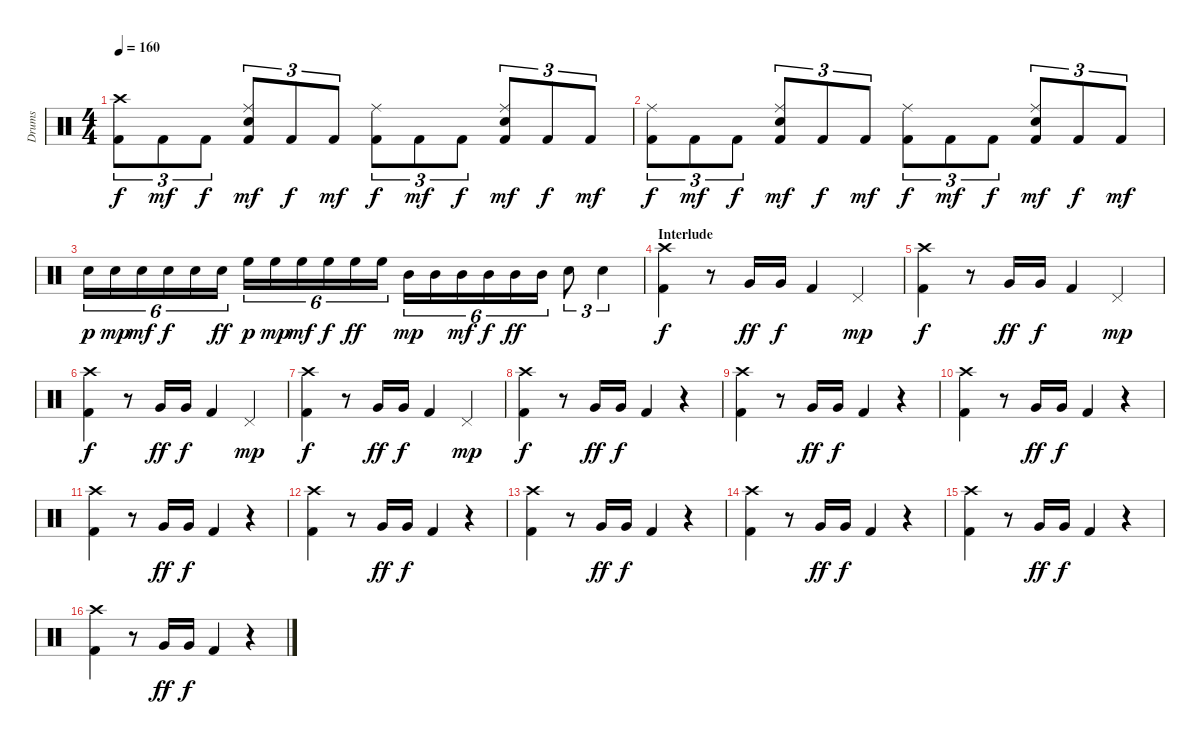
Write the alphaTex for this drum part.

\track ("Drums" "Drums") {instrument percussion}
\staff {score}
\articulation defaults
\ts (4 4)
\tempo 160
\clef neutral
\ks c
("Crash high (hit)" "Kick (hit) 2").8{tu (3 2) dy f} "Kick (hit) 2".8{tu (3 2) dy mf} "Kick (hit) 2".8{tu (3 2) dy f} ("Ride (middle)" "Snare (hit) 2" "Kick (hit) 2").8{tu (3 2) dy mf} "Kick (hit) 2".8{tu (3 2) dy f} "Kick (hit) 2".8{tu (3 2) dy mf} ("Ride (middle)" "Kick (hit) 2").8{tu (3 2) dy f} "Kick (hit) 2".8{tu (3 2) dy mf} "Kick (hit) 2".8{tu (3 2) dy f} ("Ride (middle)" "Snare (hit) 2" "Kick (hit) 2").8{tu (3 2) dy mf} "Kick (hit) 2".8{tu (3 2) dy f} "Kick (hit) 2".8{tu (3 2) dy mf} |
("Ride (middle)" "Kick (hit) 2").8{tu (3 2) dy f} "Kick (hit) 2".8{tu (3 2) dy mf} "Kick (hit) 2".8{tu (3 2) dy f} ("Ride (middle)" "Snare (hit) 2" "Kick (hit) 2").8{tu (3 2) dy mf} "Kick (hit) 2".8{tu (3 2) dy f} "Kick (hit) 2".8{tu (3 2) dy mf} ("Ride (middle)" "Kick (hit) 2").8{tu (3 2) dy f} "Kick (hit) 2".8{tu (3 2) dy mf} "Kick (hit) 2".8{tu (3 2) dy f} ("Ride (middle)" "Snare (hit) 2" "Kick (hit) 2").8{tu (3 2) dy mf} "Kick (hit) 2".8{tu (3 2) dy f} "Kick (hit) 2".8{tu (3 2) dy mf} |
"Snare (hit) 2".16{tu (6 4) dy p} "Snare (hit) 2".16{tu (6 4) dy mp} "Snare (hit) 2".16{tu (6 4) dy mf} "Snare (hit) 2".16{tu (6 4) dy f} "Snare (hit) 2".16{tu (6 4)} "Snare (hit) 2".16{tu (6 4) dy ff} "High Floor Tom (hit)".16{tu (6 4) dy p} "High Floor Tom (hit)".16{tu (6 4) dy mp} "High Floor Tom (hit)".16{tu (6 4) dy mf} "High Floor Tom (hit)".16{tu (6 4) dy f} "High Floor Tom (hit)".16{tu (6 4) dy ff} "High Floor Tom (hit)".16{tu (6 4)} "Mid Tom (hit)".16{tu (6 4) dy mp} "Mid Tom (hit)".16{tu (6 4)} "Mid Tom (hit)".16{tu (6 4) dy mf} "Mid Tom (hit)".16{tu (6 4) dy f} "Mid Tom (hit)".16{tu (6 4) dy ff} "Mid Tom (hit)".16{tu (6 4)} "Snare (hit) 2".8{tu (3 2)} "Snare (hit) 2".4{tu (3 2)} |
\section ("" "Interlude")
("Crash high (hit)" "Kick (hit) 2").4{dy f} r.8 "Very Low Tom (hit)".16{dy ff} "Very Low Tom (hit)".16{dy f} "Kick (hit) 2".4 "Pedal Hi-Hat (hit)".4{dy mp} |
("Crash high (hit)" "Kick (hit) 2").4{dy f} r.8 "Very Low Tom (hit)".16{dy ff} "Very Low Tom (hit)".16{dy f} "Kick (hit) 2".4 "Pedal Hi-Hat (hit)".4{dy mp} |
("Crash high (hit)" "Kick (hit) 2").4{dy f} r.8 "Very Low Tom (hit)".16{dy ff} "Very Low Tom (hit)".16{dy f} "Kick (hit) 2".4 "Pedal Hi-Hat (hit)".4{dy mp} |
("Crash high (hit)" "Kick (hit) 2").4{dy f} r.8 "Very Low Tom (hit)".16{dy ff} "Very Low Tom (hit)".16{dy f} "Kick (hit) 2".4 "Pedal Hi-Hat (hit)".4{dy mp} |
("Crash high (hit)" "Kick (hit) 2").4{dy f} r.8 "Very Low Tom (hit)".16{dy ff} "Very Low Tom (hit)".16{dy f} "Kick (hit) 2".4 r.4 |
("Crash high (hit)" "Kick (hit) 2").4 r.8 "Very Low Tom (hit)".16{dy ff} "Very Low Tom (hit)".16{dy f} "Kick (hit) 2".4 r.4 |
("Crash high (hit)" "Kick (hit) 2").4 r.8 "Very Low Tom (hit)".16{dy ff} "Very Low Tom (hit)".16{dy f} "Kick (hit) 2".4 r.4 |
("Crash high (hit)" "Kick (hit) 2").4 r.8 "Very Low Tom (hit)".16{dy ff} "Very Low Tom (hit)".16{dy f} "Kick (hit) 2".4 r.4 |
("Crash high (hit)" "Kick (hit) 2").4 r.8 "Very Low Tom (hit)".16{dy ff} "Very Low Tom (hit)".16{dy f} "Kick (hit) 2".4 r.4 |
("Crash high (hit)" "Kick (hit) 2").4 r.8 "Very Low Tom (hit)".16{dy ff} "Very Low Tom (hit)".16{dy f} "Kick (hit) 2".4 r.4 |
("Crash high (hit)" "Kick (hit) 2").4 r.8 "Very Low Tom (hit)".16{dy ff} "Very Low Tom (hit)".16{dy f} "Kick (hit) 2".4 r.4 |
("Crash high (hit)" "Kick (hit) 2").4 r.8 "Very Low Tom (hit)".16{dy ff} "Very Low Tom (hit)".16{dy f} "Kick (hit) 2".4 r.4 |
("Crash high (hit)" "Kick (hit) 2").4 r.8 "Very Low Tom (hit)".16{dy ff} "Very Low Tom (hit)".16{dy f} "Kick (hit) 2".4 r.4
